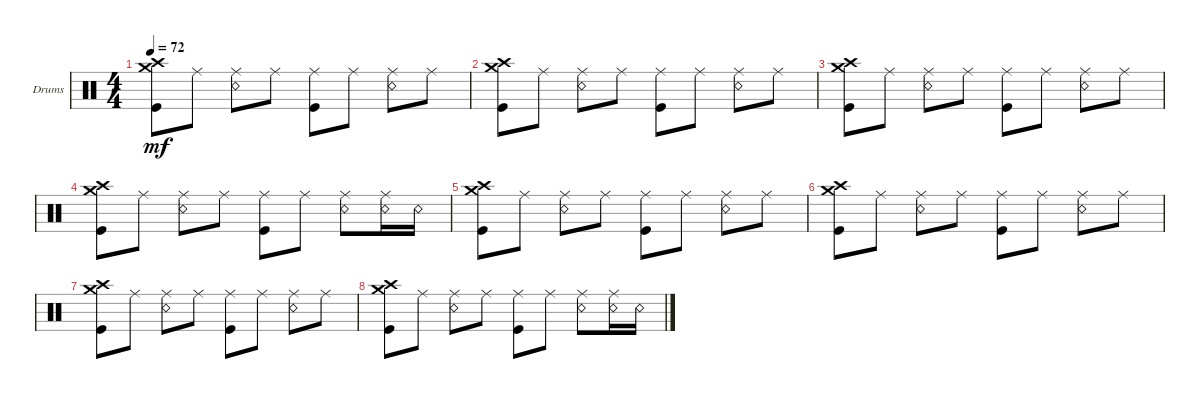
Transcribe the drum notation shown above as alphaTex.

\defaultSystemsLayout 4
\bracketExtendMode groupsimilarinstruments
\firstSystemTrackNameOrientation horizontal
\otherSystemsTrackNameOrientation horizontal
\track ("Drum" "Drums") {multiBarRest instrument percussion}
\staff {score}
\articulation defaults
\ts (4 4)
\tempo 72
\clef neutral
\ks c
("Kick (hit)" "Crash high (hit)" "Crash medium (hit)").8{dy mf} "Ride (middle)".8 ("Ride (middle)" "Snare (rim shot)").8 "Ride (middle)".8 ("Ride (middle)" "Kick (hit)").8 "Ride (middle)".8 ("Ride (middle)" "Snare (rim shot)").8 "Ride (middle)".8 |
("Kick (hit)" "Crash high (hit)" "Crash medium (hit)").8 "Ride (middle)".8 ("Ride (middle)" "Snare (rim shot)").8 "Ride (middle)".8 ("Ride (middle)" "Kick (hit)").8 "Ride (middle)".8 ("Ride (middle)" "Snare (rim shot)").8 "Ride (middle)".8 |
("Kick (hit)" "Crash high (hit)" "Crash medium (hit)").8 "Ride (middle)".8 ("Ride (middle)" "Snare (rim shot)").8 "Ride (middle)".8 ("Ride (middle)" "Kick (hit)").8 "Ride (middle)".8 ("Ride (middle)" "Snare (rim shot)").8 "Ride (middle)".8 |
("Kick (hit)" "Crash high (hit)" "Crash medium (hit)").8 "Ride (middle)".8 ("Ride (middle)" "Snare (rim shot)").8 "Ride (middle)".8 ("Ride (middle)" "Kick (hit)").8 "Ride (middle)".8 ("Ride (middle)" "Snare (rim shot)").8 ("Ride (middle)" "Snare (rim shot)").16 "Snare (rim shot)".16 |
("Kick (hit)" "Crash high (hit)" "Crash medium (hit)").8 "Ride (middle)".8 ("Ride (middle)" "Snare (rim shot)").8 "Ride (middle)".8 ("Ride (middle)" "Kick (hit)").8 "Ride (middle)".8 ("Ride (middle)" "Snare (rim shot)").8 "Ride (middle)".8 |
("Kick (hit)" "Crash high (hit)" "Crash medium (hit)").8 "Ride (middle)".8 ("Ride (middle)" "Snare (rim shot)").8 "Ride (middle)".8 ("Ride (middle)" "Kick (hit)").8 "Ride (middle)".8 ("Ride (middle)" "Snare (rim shot)").8 "Ride (middle)".8 |
("Kick (hit)" "Crash high (hit)" "Crash medium (hit)").8 "Ride (middle)".8 ("Ride (middle)" "Snare (rim shot)").8 "Ride (middle)".8 ("Ride (middle)" "Kick (hit)").8 "Ride (middle)".8 ("Ride (middle)" "Snare (rim shot)").8 "Ride (middle)".8 |
("Kick (hit)" "Crash high (hit)" "Crash medium (hit)").8 "Ride (middle)".8 ("Ride (middle)" "Snare (rim shot)").8 "Ride (middle)".8 ("Ride (middle)" "Kick (hit)").8 "Ride (middle)".8 ("Ride (middle)" "Snare (rim shot)").8 ("Ride (middle)" "Snare (rim shot)").16 "Snare (rim shot)".16
